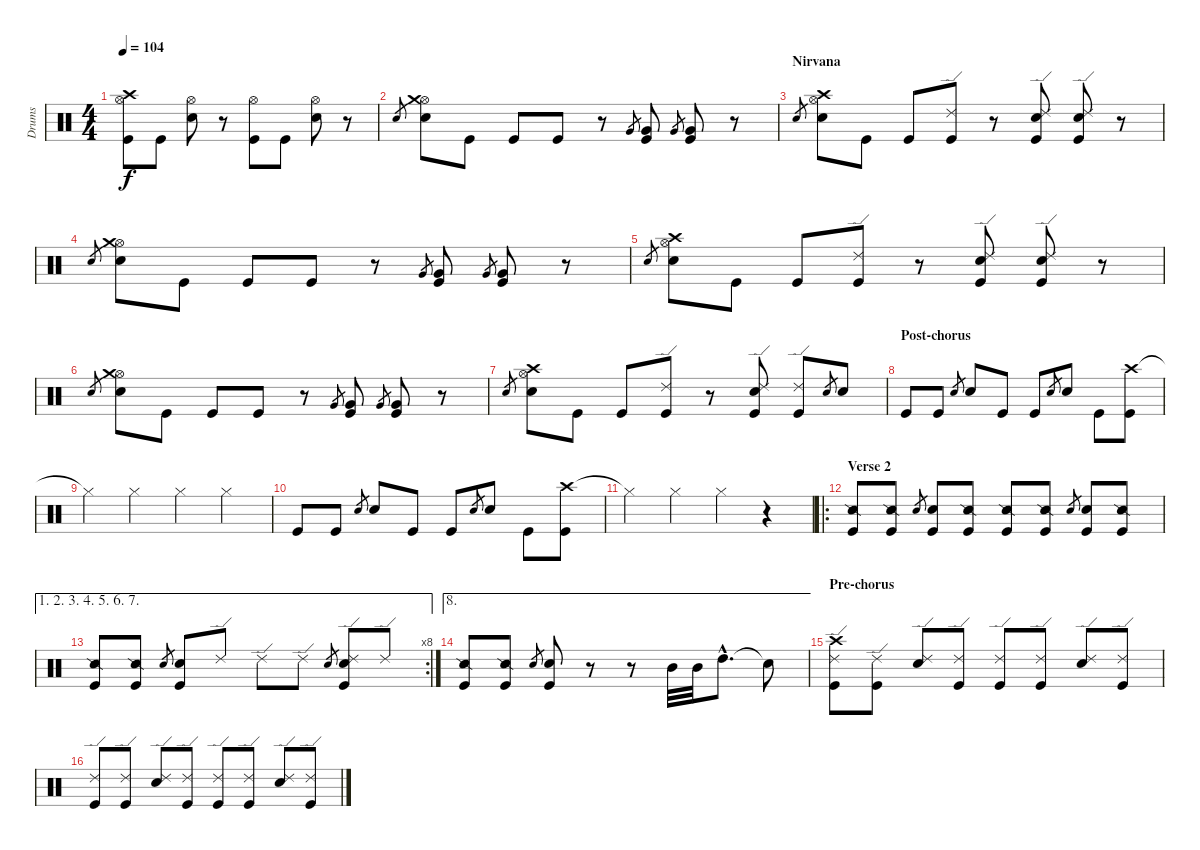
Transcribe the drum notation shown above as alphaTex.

\track ("Drums" "Drums") {instrument percussion}
\staff {score}
\articulation defaults
\ts (4 4)
\tempo 104
\clef neutral
\ks c
("Hi-Hat (open)" "Crash high (hit)" "Kick (hit)").8{dy f} "Kick (hit)".8 ("Hi-Hat (open)" "Snare (hit) 2").8 r.8 ("Hi-Hat (open)" "Kick (hit)").8 "Kick (hit)".8 ("Hi-Hat (open)" "Snare (hit) 2").8 r.8 |
"Snare (hit) 2".8{gr} ("Hi-Hat (open)" "Crash medium (hit)" "Snare (hit) 2").8 "Kick (hit)".8 "Kick (hit)".8 "Kick (hit)".8 r.8 "Very Low Tom (hit)".8{gr} ("Very Low Tom (hit)" "Kick (hit)").8 "Very Low Tom (hit)".8{gr} ("Very Low Tom (hit)" "Kick (hit)").8 r.8 |
\section ("" "Nirvana")
"Snare (hit) 2".8{gr} ("Hi-Hat (open)" "Crash high (hit)" "Snare (hit) 2").8 "Kick (hit)".8 "Kick (hit)".8 ("Ride (edge) 2" "Kick (hit)").8 r.8 ("Ride (edge) 2" "Snare (hit) 2" "Kick (hit)").8 ("Ride (edge) 2" "Snare (hit) 2" "Kick (hit)").8 r.8 |
"Snare (hit) 2".8{gr} ("Hi-Hat (open)" "Crash medium (hit)" "Snare (hit) 2").8 "Kick (hit)".8 "Kick (hit)".8 "Kick (hit)".8 r.8 "Very Low Tom (hit)".8{gr} ("Very Low Tom (hit)" "Kick (hit)").8 "Very Low Tom (hit)".8{gr} ("Very Low Tom (hit)" "Kick (hit)").8 r.8 |
"Snare (hit) 2".8{gr} ("Hi-Hat (open)" "Crash high (hit)" "Snare (hit) 2").8 "Kick (hit)".8 "Kick (hit)".8 ("Ride (edge) 2" "Kick (hit)").8 r.8 ("Ride (edge) 2" "Snare (hit) 2" "Kick (hit)").8 ("Ride (edge) 2" "Snare (hit) 2" "Kick (hit)").8 r.8 |
"Snare (hit) 2".8{gr} ("Hi-Hat (open)" "Crash medium (hit)" "Snare (hit) 2").8 "Kick (hit)".8 "Kick (hit)".8 "Kick (hit)".8 r.8 "Very Low Tom (hit)".8{gr} ("Very Low Tom (hit)" "Kick (hit)").8 "Very Low Tom (hit)".8{gr} ("Very Low Tom (hit)" "Kick (hit)").8 r.8 |
"Snare (hit) 2".8{gr} ("Hi-Hat (open)" "Crash high (hit)" "Snare (hit) 2").8 "Kick (hit)".8 "Kick (hit)".8 ("Ride (edge) 2" "Kick (hit)").8 r.8 ("Ride (edge) 2" "Snare (hit) 2" "Kick (hit)").8 ("Ride (edge) 2" "Kick (hit)").8 "Snare (hit) 2".8{gr} "Snare (hit) 2".8 |
\section ("" "Post-chorus")
"Kick (hit)".8 "Kick (hit)".8 "Snare (hit) 2".8{gr} "Snare (hit) 2".8 "Kick (hit)".8 "Kick (hit)".8 "Snare (hit) 2".8{gr} "Snare (hit) 2".8 "Kick (hit)".8 ("Crash high (hit)" "Kick (hit)").8 |
"Hi-Hat (closed)"{t}.4 "Hi-Hat (closed)".4 "Hi-Hat (closed)".4 "Hi-Hat (closed)".4 |
"Kick (hit)".8 "Kick (hit)".8 "Snare (hit) 2".8{gr} "Snare (hit) 2".8 "Kick (hit)".8 "Kick (hit)".8 "Snare (hit) 2".8{gr} "Snare (hit) 2".8 "Kick (hit)".8 ("Crash high (hit)" "Kick (hit)").8 |
"Hi-Hat (closed)"{t}.4 "Hi-Hat (closed)".4 "Hi-Hat (closed)".4 r.4 |
\ro
\section ("" "Verse 2")
("Snare (side stick) 2" "Kick (hit)").8 ("Snare (side stick) 2" "Kick (hit)").8 "Snare (hit) 2".8{gr} ("Snare (hit) 2" "Kick (hit)").8 ("Snare (side stick) 2" "Kick (hit)").8 ("Snare (side stick) 2" "Kick (hit)").8 ("Snare (side stick) 2" "Kick (hit)").8 "Snare (hit) 2".8{gr} ("Snare (hit) 2" "Kick (hit)").8 ("Snare (side stick) 2" "Kick (hit)").8 |
\ae (1 2 3 4 5 6 7)
\rc 8
("Snare (side stick) 2" "Kick (hit)").8 ("Snare (side stick) 2" "Kick (hit)").8 "Snare (hit) 2".8{gr} ("Snare (hit) 2" "Kick (hit)").8 "Ride (edge) 2".8 "Ride (edge) 2".8 "Ride (edge) 2".8 "Snare (hit) 2".8{gr} ("Ride (edge) 2" "Snare (hit) 2" "Kick (hit)").8 "Ride (edge) 2".8 |
\ae 8
("Snare (side stick) 2" "Kick (hit)").8 ("Snare (side stick) 2" "Kick (hit)").8 "Snare (hit) 2".8{gr} ("Snare (hit) 2" "Kick (hit)").8 r.8 r.8 "Mid Tom (hit)".32 "Mid Tom (hit)".32 "High Tom (hit)"{hac}.8{d} "Snare (hit)"{t}.8 |
\section ("" "Pre-chorus")
("Ride (edge) 2" "Crash high (hit)" "Kick (hit)").8 ("Ride (edge) 2" "Kick (hit)").8 ("Ride (edge) 2" "Snare (hit) 2").8 ("Ride (edge) 2" "Kick (hit)").8 ("Ride (edge) 2" "Kick (hit)").8 ("Ride (edge) 2" "Kick (hit)").8 ("Ride (edge) 2" "Snare (hit) 2").8 ("Ride (edge) 2" "Kick (hit)").8 |
("Ride (edge) 2" "Kick (hit)").8 ("Ride (edge) 2" "Kick (hit)").8 ("Ride (edge) 2" "Snare (hit) 2").8 ("Ride (edge) 2" "Kick (hit)").8 ("Ride (edge) 2" "Kick (hit)").8 ("Ride (edge) 2" "Kick (hit)").8 ("Ride (edge) 2" "Snare (hit) 2").8 ("Ride (edge) 2" "Kick (hit)").8
